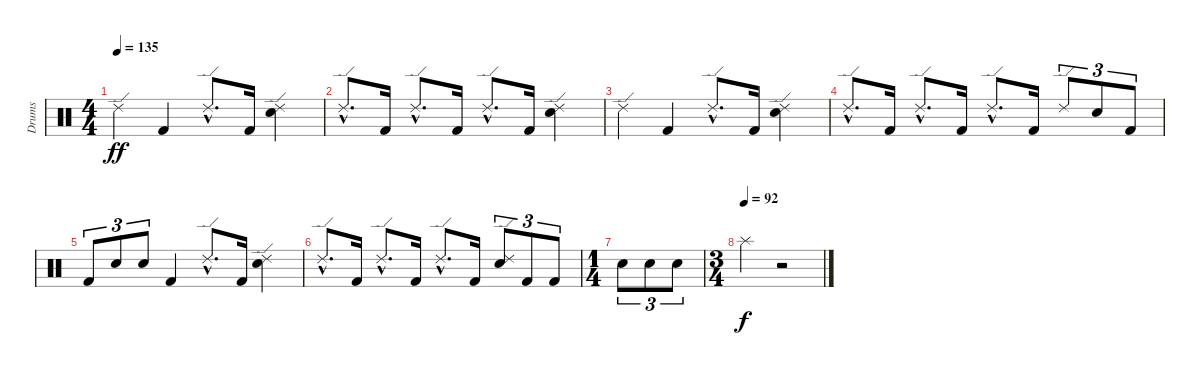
\track ("Drums" "Drums") {instrument percussion}
\staff {score}
\articulation defaults
\ts (4 4)
\tempo 135
\clef neutral
\ks c "Ride (edge) 2".4{dy ff} "Kick (hit) 2".4 "Ride (edge) 2"{hac}.8{d} "Kick (hit) 2".16
("Electric Snare (hit)" "Ride (edge) 2").4 |
"Ride (edge) 2"{hac}.8{d} "Kick (hit) 2".16 "Ride (edge) 2"{hac}.8{d} "Kick (hit) 2".16 "Ride (edge) 2"{hac}.8{d} "Kick (hit) 2".16 ("Electric Snare (hit)" "Ride (edge) 2").4 |
"Ride (edge) 2".4 "Kick (hit) 2".4 "Ride (edge) 2"{hac}.8{d} "Kick (hit) 2".16 ("Electric Snare (hit)" "Ride (edge) 2").4 |
"Ride (edge) 2"{hac}.8{d} "Kick (hit) 2".16 "Ride (edge) 2"{hac}.8{d} "Kick (hit) 2".16 "Ride (edge) 2"{hac}.8{d} "Kick (hit) 2".16 "Ride (edge) 2".8{tu (3 2)} "Electric Snare (hit)".8{tu (3 2)} "Kick (hit) 2".8{tu (3 2)} |
"Kick (hit) 2".8{tu (3 2)} "Electric Snare (hit)".8{tu (3 2)} "Electric Snare (hit)".8{tu (3 2)} "Kick (hit) 2".4 "Ride (edge) 2"{hac}.8{d} "Kick (hit) 2".16 ("Electric Snare (hit)" "Ride (edge) 2").4 |
"Ride (edge) 2"{hac}.8{d} "Kick (hit) 2".16 "Ride (edge) 2"{hac}.8{d} "Kick (hit) 2".16 "Ride (edge) 2"{hac}.8{d} "Kick (hit) 2".16 ("Electric Snare (hit)" "Ride (edge) 2").8{tu (3 2)} "Kick (hit) 2".8{tu (3 2)} "Kick (hit) 2".8{tu (3 2)} |
\ts (1 4)
"Electric Snare (hit)".8{tu (3 2)} "Electric Snare (hit)".8{tu (3 2)} "Electric Snare (hit)".8{tu (3 2)} |
\ts (3 4)
\tempo (92)
"Splash (hit)".4{dy f} r.2
